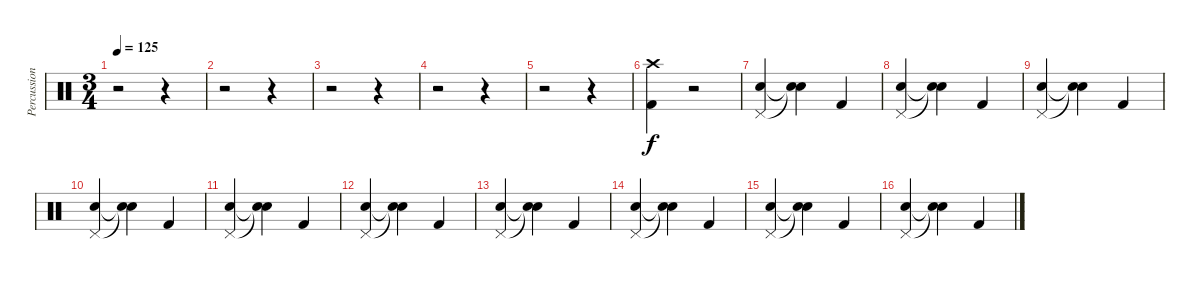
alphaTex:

\track ("Percussion" "Percussion") {instrument percussion}
\staff {score}
\articulation defaults
\ts (3 4)
\tempo 125
\clef neutral
\ks c
r.2{dy f} r.4 |
r.2 r.4 |
r.2 r.4 |
r.2 r.4 |
r.2 r.4 |
("Crash high (hit)" "Kick (hit) 2").4 r.2 |
("Pedal Hi-Hat (hit)" "Snare (hit) 2").4 ("Snare (hit)"{t} "Snare (hit)"{t}).4 "Kick (hit) 2".4 |
("Pedal Hi-Hat (hit)" "Snare (hit) 2").4 ("Snare (hit)"{t} "Snare (hit)"{t}).4 "Kick (hit) 2".4 |
("Pedal Hi-Hat (hit)" "Snare (hit) 2").4 ("Snare (hit)"{t} "Snare (hit)"{t}).4 "Kick (hit) 2".4 |
("Pedal Hi-Hat (hit)" "Snare (hit) 2").4 ("Snare (hit)"{t} "Snare (hit)"{t}).4 "Kick (hit) 2".4 |
("Pedal Hi-Hat (hit)" "Snare (hit) 2").4 ("Snare (hit)"{t} "Snare (hit)"{t}).4 "Kick (hit) 2".4 |
("Pedal Hi-Hat (hit)" "Snare (hit) 2").4 ("Snare (hit)"{t} "Snare (hit)"{t}).4 "Kick (hit) 2".4 |
("Pedal Hi-Hat (hit)" "Snare (hit) 2").4 ("Snare (hit)"{t} "Snare (hit)"{t}).4 "Kick (hit) 2".4 |
("Pedal Hi-Hat (hit)" "Snare (hit) 2").4 ("Snare (hit)"{t} "Snare (hit)"{t}).4 "Kick (hit) 2".4 |
("Pedal Hi-Hat (hit)" "Snare (hit) 2").4 ("Snare (hit)"{t} "Snare (hit)"{t}).4 "Kick (hit) 2".4 |
("Pedal Hi-Hat (hit)" "Snare (hit) 2").4 ("Snare (hit)"{t} "Snare (hit)"{t}).4 "Kick (hit) 2".4
